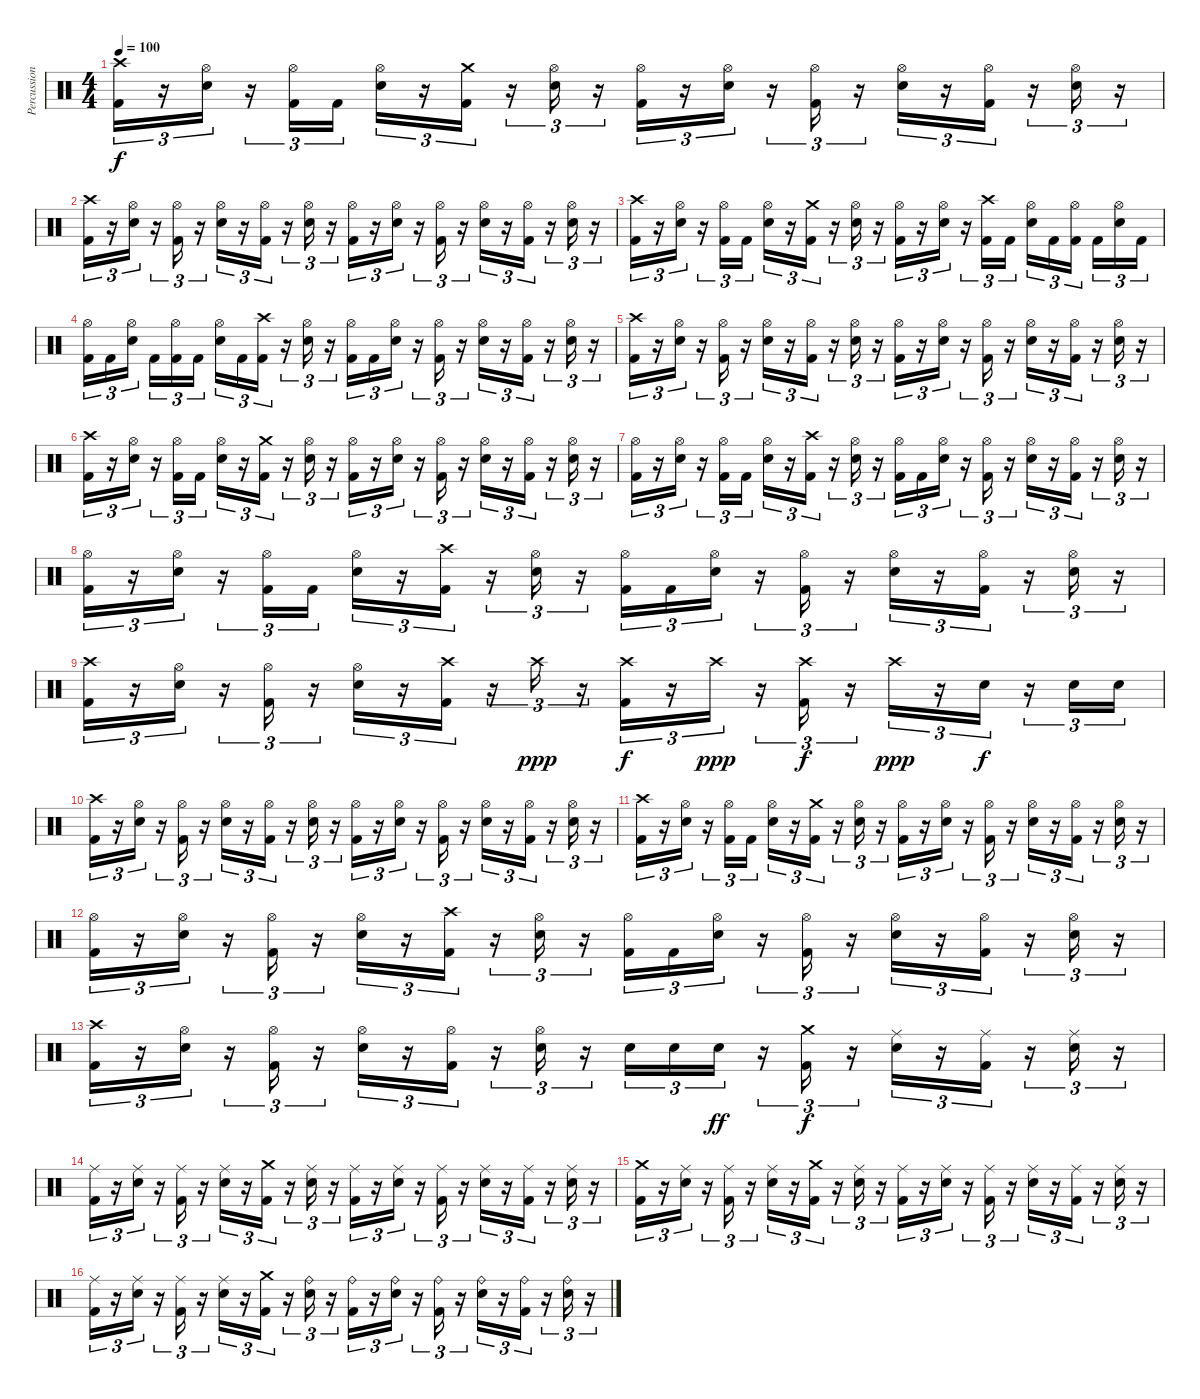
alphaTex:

\track ("Percussion" "Percussion") {instrument percussion}
\staff {score}
\articulation defaults
\ts (4 4)
\tempo 100
\clef neutral
\ks c
("Crash high (hit)" "Kick (hit) 2").16{tu (3 2) dy f} r.16{tu (3 2)} ("Hi-Hat (open)" "Snare (hit) 2").16{tu (3 2)} r.16{tu (3 2)} ("Kick (hit) 2" "Hi-Hat (open)").16{tu (3 2)} "Kick (hit) 2".16{tu (3 2)} ("Snare (hit) 2" "Hi-Hat (open)").16{tu (3 2)} r.16{tu (3 2)} ("Kick (hit) 2" "Crash medium (hit)").16{tu (3 2)} r.16{tu (3 2)} ("Hi-Hat (open)" "Snare (hit) 2").16{tu (3 2)} r.16{tu (3 2)} ("Kick (hit) 2" "Hi-Hat (open)").16{tu (3 2)} r.16{tu (3 2)} ("Hi-Hat (open)" "Snare (hit) 2").16{tu (3 2)} r.16{tu (3 2)} ("Kick (hit) 2" "Hi-Hat (open)").16{tu (3 2)} r.16{tu (3 2)} ("Hi-Hat (open)" "Snare (hit) 2").16{tu (3 2)} r.16{tu (3 2)} ("Kick (hit) 2" "Hi-Hat (open)").16{tu (3 2)} r.16{tu (3 2)} ("Hi-Hat (open)" "Snare (hit) 2").16{tu (3 2)} r.16{tu (3 2)} |
("Crash high (hit)" "Kick (hit) 2").16{tu (3 2)} r.16{tu (3 2)} ("Hi-Hat (open)" "Snare (hit) 2").16{tu (3 2)} r.16{tu (3 2)} ("Kick (hit) 2" "Hi-Hat (open)").16{tu (3 2)} r.16{tu (3 2)} ("Snare (hit) 2" "Hi-Hat (open)").16{tu (3 2)} r.16{tu (3 2)} ("Kick (hit) 2" "Hi-Hat (open)").16{tu (3 2)} r.16{tu (3 2)} ("Hi-Hat (open)" "Snare (hit) 2").16{tu (3 2)} r.16{tu (3 2)} ("Kick (hit) 2" "Hi-Hat (open)").16{tu (3 2)} r.16{tu (3 2)} ("Hi-Hat (open)" "Snare (hit) 2").16{tu (3 2)} r.16{tu (3 2)} ("Kick (hit) 2" "Hi-Hat (open)").16{tu (3 2)} r.16{tu (3 2)} ("Hi-Hat (open)" "Snare (hit) 2").16{tu (3 2)} r.16{tu (3 2)} ("Kick (hit) 2" "Hi-Hat (open)").16{tu (3 2)} r.16{tu (3 2)} ("Hi-Hat (open)" "Snare (hit) 2").16{tu (3 2)} r.16{tu (3 2)} |
("Crash high (hit)" "Kick (hit) 2").16{tu (3 2)} r.16{tu (3 2)} ("Hi-Hat (open)" "Snare (hit) 2").16{tu (3 2)} r.16{tu (3 2)} ("Kick (hit) 2" "Hi-Hat (open)").16{tu (3 2)} "Kick (hit) 2".16{tu (3 2)} ("Snare (hit) 2" "Hi-Hat (open)").16{tu (3 2)} r.16{tu (3 2)} ("Kick (hit) 2" "Crash medium (hit)").16{tu (3 2)} r.16{tu (3 2)} ("Hi-Hat (open)" "Snare (hit) 2").16{tu (3 2)} r.16{tu (3 2)} ("Kick (hit) 2" "Hi-Hat (open)").16{tu (3 2)} r.16{tu (3 2)} ("Hi-Hat (open)" "Snare (hit) 2").16{tu (3 2)} r.16{tu (3 2)} ("Kick (hit) 2" "Crash high (hit)").16{tu (3 2)} "Kick (hit) 2".16{tu (3 2)} ("Hi-Hat (open)" "Snare (hit) 2").16{tu (3 2)} "Kick (hit) 2".16{tu (3 2)} ("Kick (hit) 2" "Hi-Hat (open)").16{tu (3 2) beam splitsecondary} "Kick (hit) 2".16{tu (3 2)} ("Hi-Hat (open)" "Snare (hit) 2").16{tu (3 2)} "Kick (hit) 2".16{tu (3 2)} |
("Hi-Hat (open)" "Kick (hit) 2").16{tu (3 2)} "Kick (hit) 2".16{tu (3 2)} ("Hi-Hat (open)" "Snare (hit) 2").16{tu (3 2) beam splitsecondary} "Kick (hit) 2".16{tu (3 2)} ("Kick (hit) 2" "Hi-Hat (open)").16{tu (3 2)} "Kick (hit) 2".16{tu (3 2)} ("Snare (hit) 2" "Hi-Hat (open)").16{tu (3 2)} "Kick (hit) 2".16{tu (3 2)} ("Crash high (hit)" "Kick (hit) 2").16{tu (3 2)} r.16{tu (3 2)} ("Hi-Hat (open)" "Snare (hit) 2").16{tu (3 2)} r.16{tu (3 2)} ("Kick (hit) 2" "Hi-Hat (open)").16{tu (3 2)} "Kick (hit) 2".16{tu (3 2)} ("Hi-Hat (open)" "Snare (hit) 2").16{tu (3 2)} r.16{tu (3 2)} ("Kick (hit) 2" "Hi-Hat (open)").16{tu (3 2)} r.16{tu (3 2)} ("Hi-Hat (open)" "Snare (hit) 2").16{tu (3 2)} r.16{tu (3 2)} ("Kick (hit) 2" "Hi-Hat (open)").16{tu (3 2)} r.16{tu (3 2)} ("Hi-Hat (open)" "Snare (hit) 2").16{tu (3 2)} r.16{tu (3 2)} |
("Crash high (hit)" "Kick (hit) 2").16{tu (3 2)} r.16{tu (3 2)} ("Hi-Hat (open)" "Snare (hit) 2").16{tu (3 2)} r.16{tu (3 2)} ("Kick (hit) 2" "Hi-Hat (open)").16{tu (3 2)} r.16{tu (3 2)} ("Snare (hit) 2" "Hi-Hat (open)").16{tu (3 2)} r.16{tu (3 2)} ("Kick (hit) 2" "Hi-Hat (open)").16{tu (3 2)} r.16{tu (3 2)} ("Hi-Hat (open)" "Snare (hit) 2").16{tu (3 2)} r.16{tu (3 2)} ("Kick (hit) 2" "Hi-Hat (open)").16{tu (3 2)} r.16{tu (3 2)} ("Hi-Hat (open)" "Snare (hit) 2").16{tu (3 2)} r.16{tu (3 2)} ("Kick (hit) 2" "Hi-Hat (open)").16{tu (3 2)} r.16{tu (3 2)} ("Hi-Hat (open)" "Snare (hit) 2").16{tu (3 2)} r.16{tu (3 2)} ("Kick (hit) 2" "Hi-Hat (open)").16{tu (3 2)} r.16{tu (3 2)} ("Hi-Hat (open)" "Snare (hit) 2").16{tu (3 2)} r.16{tu (3 2)} |
("Crash high (hit)" "Kick (hit) 2").16{tu (3 2)} r.16{tu (3 2)} ("Hi-Hat (open)" "Snare (hit) 2").16{tu (3 2)} r.16{tu (3 2)} ("Kick (hit) 2" "Hi-Hat (open)").16{tu (3 2)} "Kick (hit) 2".16{tu (3 2)} ("Snare (hit) 2" "Hi-Hat (open)").16{tu (3 2)} r.16{tu (3 2)} ("Kick (hit) 2" "Crash medium (hit)").16{tu (3 2)} r.16{tu (3 2)} ("Hi-Hat (open)" "Snare (hit) 2").16{tu (3 2)} r.16{tu (3 2)} ("Kick (hit) 2" "Hi-Hat (open)").16{tu (3 2)} r.16{tu (3 2)} ("Hi-Hat (open)" "Snare (hit) 2").16{tu (3 2)} r.16{tu (3 2)} ("Kick (hit) 2" "Hi-Hat (open)").16{tu (3 2)} r.16{tu (3 2)} ("Hi-Hat (open)" "Snare (hit) 2").16{tu (3 2)} r.16{tu (3 2)} ("Kick (hit) 2" "Hi-Hat (open)").16{tu (3 2)} r.16{tu (3 2)} ("Hi-Hat (open)" "Snare (hit) 2").16{tu (3 2)} r.16{tu (3 2)} |
("Hi-Hat (open)" "Kick (hit) 2").16{tu (3 2)} r.16{tu (3 2)} ("Hi-Hat (open)" "Snare (hit) 2").16{tu (3 2)} r.16{tu (3 2)} ("Kick (hit) 2" "Hi-Hat (open)").16{tu (3 2)} "Kick (hit) 2".16{tu (3 2)} ("Snare (hit) 2" "Hi-Hat (open)").16{tu (3 2)} r.16{tu (3 2)} ("Crash high (hit)" "Kick (hit) 2").16{tu (3 2)} r.16{tu (3 2)} ("Hi-Hat (open)" "Snare (hit) 2").16{tu (3 2)} r.16{tu (3 2)} ("Kick (hit) 2" "Hi-Hat (open)").16{tu (3 2)} "Kick (hit) 2".16{tu (3 2)} ("Hi-Hat (open)" "Snare (hit) 2").16{tu (3 2)} r.16{tu (3 2)} ("Kick (hit) 2" "Hi-Hat (open)").16{tu (3 2)} r.16{tu (3 2)} ("Hi-Hat (open)" "Snare (hit) 2").16{tu (3 2)} r.16{tu (3 2)} ("Kick (hit) 2" "Hi-Hat (open)").16{tu (3 2)} r.16{tu (3 2)} ("Hi-Hat (open)" "Snare (hit) 2").16{tu (3 2)} r.16{tu (3 2)} |
("Hi-Hat (open)" "Kick (hit) 2").16{tu (3 2)} r.16{tu (3 2)} ("Hi-Hat (open)" "Snare (hit) 2").16{tu (3 2)} r.16{tu (3 2)} ("Kick (hit) 2" "Hi-Hat (open)").16{tu (3 2)} "Kick (hit) 2".16{tu (3 2)} ("Snare (hit) 2" "Hi-Hat (open)").16{tu (3 2)} r.16{tu (3 2)} ("Crash high (hit)" "Kick (hit) 2").16{tu (3 2)} r.16{tu (3 2)} ("Hi-Hat (open)" "Snare (hit) 2").16{tu (3 2)} r.16{tu (3 2)} ("Kick (hit) 2" "Hi-Hat (open)").16{tu (3 2)} "Kick (hit) 2".16{tu (3 2)} ("Hi-Hat (open)" "Snare (hit) 2").16{tu (3 2)} r.16{tu (3 2)} ("Kick (hit) 2" "Hi-Hat (open)").16{tu (3 2)} r.16{tu (3 2)} ("Hi-Hat (open)" "Snare (hit) 2").16{tu (3 2)} r.16{tu (3 2)} ("Kick (hit) 2" "Hi-Hat (open)").16{tu (3 2)} r.16{tu (3 2)} ("Hi-Hat (open)" "Snare (hit) 2").16{tu (3 2)} r.16{tu (3 2)} |
("Crash high (hit)" "Kick (hit) 2").16{tu (3 2)} r.16{tu (3 2)} ("Hi-Hat (open)" "Snare (hit) 2").16{tu (3 2)} r.16{tu (3 2)} ("Kick (hit) 2" "Hi-Hat (open)").16{tu (3 2)} r.16{tu (3 2)} ("Snare (hit) 2" "Hi-Hat (open)").16{tu (3 2)} r.16{tu (3 2)} ("Kick (hit) 2" "Crash high (hit)").16{tu (3 2)} r.16{tu (3 2)} "Crash high (hit)".16{tu (3 2) dy ppp} r.16{tu (3 2)} ("Kick (hit) 2" "Crash high (hit)").16{tu (3 2) dy f} r.16{tu (3 2)} "Crash high (hit)".16{tu (3 2) dy ppp} r.16{tu (3 2)} ("Kick (hit) 2" "Crash high (hit)").16{tu (3 2) dy f} r.16{tu (3 2)} "Crash high (hit)".16{tu (3 2) dy ppp} r.16{tu (3 2)} "Snare (hit) 2".16{tu (3 2) dy f} r.16{tu (3 2)} "Snare (hit) 2".16{tu (3 2)} "Snare (hit) 2".16{tu (3 2)} |
("Crash high (hit)" "Kick (hit) 2").16{tu (3 2)} r.16{tu (3 2)} ("Hi-Hat (open)" "Snare (hit) 2").16{tu (3 2)} r.16{tu (3 2)} ("Kick (hit) 2" "Hi-Hat (open)").16{tu (3 2)} r.16{tu (3 2)} ("Snare (hit) 2" "Hi-Hat (open)").16{tu (3 2)} r.16{tu (3 2)} ("Kick (hit) 2" "Hi-Hat (open)").16{tu (3 2)} r.16{tu (3 2)} ("Hi-Hat (open)" "Snare (hit) 2").16{tu (3 2)} r.16{tu (3 2)} ("Kick (hit) 2" "Hi-Hat (open)").16{tu (3 2)} r.16{tu (3 2)} ("Hi-Hat (open)" "Snare (hit) 2").16{tu (3 2)} r.16{tu (3 2)} ("Kick (hit) 2" "Hi-Hat (open)").16{tu (3 2)} r.16{tu (3 2)} ("Hi-Hat (open)" "Snare (hit) 2").16{tu (3 2)} r.16{tu (3 2)} ("Kick (hit) 2" "Hi-Hat (open)").16{tu (3 2)} r.16{tu (3 2)} ("Hi-Hat (open)" "Snare (hit) 2").16{tu (3 2)} r.16{tu (3 2)} |
("Crash high (hit)" "Kick (hit) 2").16{tu (3 2)} r.16{tu (3 2)} ("Hi-Hat (open)" "Snare (hit) 2").16{tu (3 2)} r.16{tu (3 2)} ("Kick (hit) 2" "Hi-Hat (open)").16{tu (3 2)} "Kick (hit) 2".16{tu (3 2)} ("Snare (hit) 2" "Hi-Hat (open)").16{tu (3 2)} r.16{tu (3 2)} ("Kick (hit) 2" "Crash medium (hit)").16{tu (3 2)} r.16{tu (3 2)} ("Hi-Hat (open)" "Snare (hit) 2").16{tu (3 2)} r.16{tu (3 2)} ("Kick (hit) 2" "Hi-Hat (open)").16{tu (3 2)} r.16{tu (3 2)} ("Hi-Hat (open)" "Snare (hit) 2").16{tu (3 2)} r.16{tu (3 2)} ("Kick (hit) 2" "Hi-Hat (open)").16{tu (3 2)} r.16{tu (3 2)} ("Hi-Hat (open)" "Snare (hit) 2").16{tu (3 2)} r.16{tu (3 2)} ("Kick (hit) 2" "Hi-Hat (open)").16{tu (3 2)} r.16{tu (3 2)} ("Hi-Hat (open)" "Snare (hit) 2").16{tu (3 2)} r.16{tu (3 2)} |
("Hi-Hat (open)" "Kick (hit) 2").16{tu (3 2)} r.16{tu (3 2)} ("Hi-Hat (open)" "Snare (hit) 2").16{tu (3 2)} r.16{tu (3 2)} ("Kick (hit) 2" "Hi-Hat (open)").16{tu (3 2)} r.16{tu (3 2)} ("Snare (hit) 2" "Hi-Hat (open)").16{tu (3 2)} r.16{tu (3 2)} ("Crash high (hit)" "Kick (hit) 2").16{tu (3 2)} r.16{tu (3 2)} ("Hi-Hat (open)" "Snare (hit) 2").16{tu (3 2)} r.16{tu (3 2)} ("Kick (hit) 2" "Hi-Hat (open)").16{tu (3 2)} "Kick (hit) 2".16{tu (3 2)} ("Hi-Hat (open)" "Snare (hit) 2").16{tu (3 2)} r.16{tu (3 2)} ("Kick (hit) 2" "Hi-Hat (open)").16{tu (3 2)} r.16{tu (3 2)} ("Hi-Hat (open)" "Snare (hit) 2").16{tu (3 2)} r.16{tu (3 2)} ("Kick (hit) 2" "Hi-Hat (open)").16{tu (3 2)} r.16{tu (3 2)} ("Hi-Hat (open)" "Snare (hit) 2").16{tu (3 2)} r.16{tu (3 2)} |
("Crash high (hit)" "Kick (hit) 2").16{tu (3 2)} r.16{tu (3 2)} ("Hi-Hat (open)" "Snare (hit) 2").16{tu (3 2)} r.16{tu (3 2)} ("Kick (hit) 2" "Hi-Hat (open)").16{tu (3 2)} r.16{tu (3 2)} ("Snare (hit) 2" "Hi-Hat (open)").16{tu (3 2)} r.16{tu (3 2)} ("Kick (hit) 2" "Hi-Hat (open)").16{tu (3 2)} r.16{tu (3 2)} ("Hi-Hat (open)" "Snare (hit) 2").16{tu (3 2)} r.16{tu (3 2)} "Snare (hit) 2".16{tu (3 2)} "Snare (hit) 2".16{tu (3 2)} "Snare (hit) 2".16{tu (3 2) dy ff} r.16{tu (3 2)} ("Kick (hit) 2" "Crash medium (hit)").16{tu (3 2) dy f} r.16{tu (3 2)} ("Ride (middle)" "Snare (hit) 2").16{tu (3 2)} r.16{tu (3 2)} ("Ride (middle)" "Kick (hit) 2").16{tu (3 2)} r.16{tu (3 2)} ("Ride (middle)" "Snare (hit) 2").16{tu (3 2)} r.16{tu (3 2)} |
("Ride (middle)" "Kick (hit) 2").16{tu (3 2)} r.16{tu (3 2)} ("Ride (middle)" "Snare (hit) 2").16{tu (3 2)} r.16{tu (3 2)} ("Kick (hit) 2" "Ride (middle)").16{tu (3 2)} r.16{tu (3 2)} ("Snare (hit) 2" "Ride (middle)").16{tu (3 2)} r.16{tu (3 2)} ("Kick (hit) 2" "Crash medium (hit)").16{tu (3 2)} r.16{tu (3 2)} ("Ride (middle)" "Snare (hit) 2").16{tu (3 2)} r.16{tu (3 2)} ("Kick (hit) 2" "Ride (middle)").16{tu (3 2)} r.16{tu (3 2)} ("Ride (middle)" "Snare (hit) 2").16{tu (3 2)} r.16{tu (3 2)} ("Kick (hit) 2" "Ride (middle)").16{tu (3 2)} r.16{tu (3 2)} ("Ride (middle)" "Snare (hit) 2").16{tu (3 2)} r.16{tu (3 2)} ("Kick (hit) 2" "Ride (middle)").16{tu (3 2)} r.16{tu (3 2)} ("Ride (middle)" "Snare (hit) 2").16{tu (3 2)} r.16{tu (3 2)} |
("Crash medium (hit)" "Kick (hit) 2").16{tu (3 2)} r.16{tu (3 2)} ("Ride (middle)" "Snare (hit) 2").16{tu (3 2)} r.16{tu (3 2)} ("Kick (hit) 2" "Ride (middle)").16{tu (3 2)} r.16{tu (3 2)} ("Snare (hit) 2" "Ride (middle)").16{tu (3 2)} r.16{tu (3 2)} ("Kick (hit) 2" "Crash medium (hit)").16{tu (3 2)} r.16{tu (3 2)} ("Ride (middle)" "Snare (hit) 2").16{tu (3 2)} r.16{tu (3 2)} ("Kick (hit) 2" "Ride (middle)").16{tu (3 2)} r.16{tu (3 2)} ("Ride (middle)" "Snare (hit) 2").16{tu (3 2)} r.16{tu (3 2)} ("Kick (hit) 2" "Ride (middle)").16{tu (3 2)} r.16{tu (3 2)} ("Ride (middle)" "Snare (hit) 2").16{tu (3 2)} r.16{tu (3 2)} ("Kick (hit) 2" "Ride (middle)").16{tu (3 2)} r.16{tu (3 2)} ("Ride (middle)" "Snare (hit) 2").16{tu (3 2)} r.16{tu (3 2)} |
("Ride (middle)" "Kick (hit) 2").16{tu (3 2)} r.16{tu (3 2)} ("Ride (middle)" "Snare (hit) 2").16{tu (3 2)} r.16{tu (3 2)} ("Kick (hit) 2" "Ride (middle)").16{tu (3 2)} r.16{tu (3 2)} ("Snare (hit) 2" "Ride (middle)").16{tu (3 2)} r.16{tu (3 2)} ("Kick (hit) 2" "Crash medium (hit)").16{tu (3 2)} r.16{tu (3 2)} ("Ride (bell)" "Snare (hit) 2").16{tu (3 2)} r.16{tu (3 2)} ("Kick (hit) 2" "Ride (bell)").16{tu (3 2)} r.16{tu (3 2)} ("Ride (bell)" "Snare (hit) 2").16{tu (3 2)} r.16{tu (3 2)} ("Kick (hit) 2" "Ride (bell)").16{tu (3 2)} r.16{tu (3 2)} ("Ride (bell)" "Snare (hit) 2").16{tu (3 2)} r.16{tu (3 2)} ("Kick (hit) 2" "Ride (bell)").16{tu (3 2)} r.16{tu (3 2)} ("Ride (bell)" "Snare (hit) 2").16{tu (3 2)} r.16{tu (3 2)}
